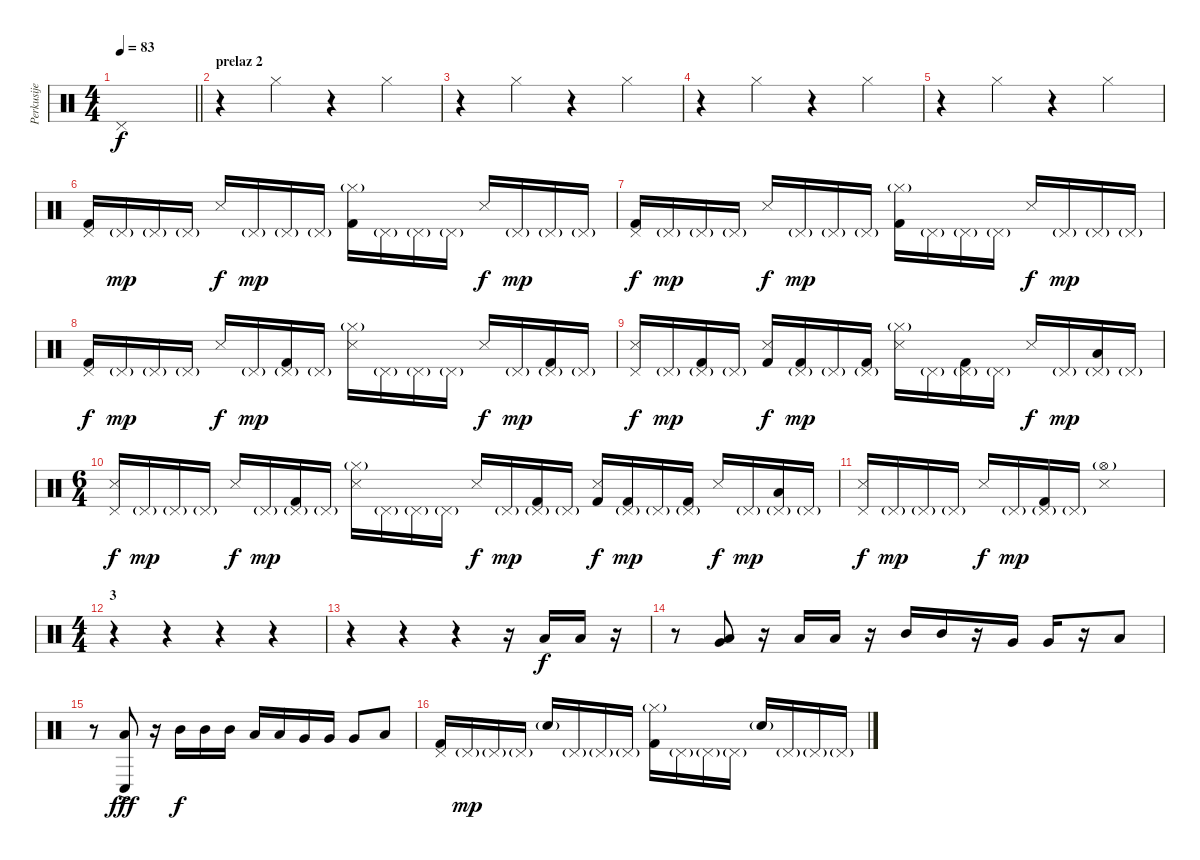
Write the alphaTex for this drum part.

\track ("Perkusije" "Perkusije") {instrument percussion}
\staff {score}
\articulation defaults
\ts (4 4)
\tempo 83
\clef neutral
\barLineRight lightlight
\ks c "Pedal Hi-Hat (hit)".1{dy f}
|
\section ("" "prelaz 2")
r.4 "Hi-Hat (closed)".4 r.4 "Hi-Hat (closed)".4 |
r.4 "Hi-Hat (closed)".4 r.4 "Hi-Hat (closed)".4 |
r.4 "Hi-Hat (closed)".4 r.4 "Hi-Hat (closed)".4 |
r.4 "Hi-Hat (closed)".4 r.4 "Hi-Hat (closed)".4 |
("Pedal Hi-Hat (hit)" "Kick (hit) 2").16 "Pedal Hi-Hat (hit)"{g}.16{dy mp} "Pedal Hi-Hat (hit)"{g}.16 "Pedal Hi-Hat (hit)"{g}.16 "Snare (side stick) 3".16{dy f} "Pedal Hi-Hat (hit)"{g}.16{dy mp} "Pedal Hi-Hat (hit)"{g}.16 "Pedal Hi-Hat (hit)"{g}.16 ("Hi-Hat (closed)"{g} "Kick (hit) 2").16 "Pedal Hi-Hat (hit)"{g}.16 "Pedal Hi-Hat (hit)"{g}.16 "Pedal Hi-Hat (hit)"{g}.16 "Snare (side stick) 3".16{dy f} "Pedal Hi-Hat (hit)"{g}.16{dy mp} "Pedal Hi-Hat (hit)"{g}.16 "Pedal Hi-Hat (hit)"{g}.16 |
("Pedal Hi-Hat (hit)" "Kick (hit) 2").16{dy f} "Pedal Hi-Hat (hit)"{g}.16{dy mp} "Pedal Hi-Hat (hit)"{g}.16 "Pedal Hi-Hat (hit)"{g}.16 "Snare (side stick) 3".16{dy f} "Pedal Hi-Hat (hit)"{g}.16{dy mp} "Pedal Hi-Hat (hit)"{g}.16 "Pedal Hi-Hat (hit)"{g}.16 ("Hi-Hat (closed)"{g} "Kick (hit) 2").16 "Pedal Hi-Hat (hit)"{g}.16 "Pedal Hi-Hat (hit)"{g}.16 "Pedal Hi-Hat (hit)"{g}.16 "Snare (side stick) 3".16{dy f} "Pedal Hi-Hat (hit)"{g}.16{dy mp} "Pedal Hi-Hat (hit)"{g}.16 "Pedal Hi-Hat (hit)"{g}.16 |
("Pedal Hi-Hat (hit)" "Kick (hit) 2").16{dy f} "Pedal Hi-Hat (hit)"{g}.16{dy mp} "Pedal Hi-Hat (hit)"{g}.16 "Pedal Hi-Hat (hit)"{g}.16 "Snare (side stick) 3".16{dy f} "Pedal Hi-Hat (hit)"{g}.16{dy mp} ("Pedal Hi-Hat (hit)"{g} "Kick (hit) 2").16 "Pedal Hi-Hat (hit)"{g}.16 ("Hi-Hat (closed)"{g} "Snare (side stick) 3").16 "Pedal Hi-Hat (hit)"{g}.16 "Pedal Hi-Hat (hit)"{g}.16 "Pedal Hi-Hat (hit)"{g}.16 "Snare (side stick) 3".16{dy f} "Pedal Hi-Hat (hit)"{g}.16{dy mp} ("Pedal Hi-Hat (hit)"{g} "Kick (hit) 2").16 "Pedal Hi-Hat (hit)"{g}.16 |
("Pedal Hi-Hat (hit)" "Snare (side stick) 3").16{dy f} "Pedal Hi-Hat (hit)"{g}.16{dy mp} ("Pedal Hi-Hat (hit)"{g} "Kick (hit) 2").16 "Pedal Hi-Hat (hit)"{g}.16 ("Snare (side stick) 3" "Kick (hit) 2").16{dy f} ("Pedal Hi-Hat (hit)"{g} "Kick (hit) 2").16{dy mp} "Pedal Hi-Hat (hit)"{g}.16 ("Pedal Hi-Hat (hit)"{g} "Kick (hit) 2").16 ("Hi-Hat (closed)"{g} "Snare (side stick) 3").16 "Pedal Hi-Hat (hit)"{g}.16 ("Pedal Hi-Hat (hit)"{g} "Kick (hit) 2").16 "Pedal Hi-Hat (hit)"{g}.16 "Snare (side stick) 3".16{dy f} "Pedal Hi-Hat (hit)"{g}.16{dy mp} ("Pedal Hi-Hat (hit)"{g} "Low Floor Tom (hit)").16 "Pedal Hi-Hat (hit)"{g}.16 |
\ts (6 4)
("Pedal Hi-Hat (hit)" "Snare (side stick) 3").16{dy f} "Pedal Hi-Hat (hit)"{g}.16{dy mp} "Pedal Hi-Hat (hit)"{g}.16 "Pedal Hi-Hat (hit)"{g}.16 "Snare (side stick) 3".16{dy f} "Pedal Hi-Hat (hit)"{g}.16{dy mp} ("Pedal Hi-Hat (hit)"{g} "Kick (hit) 2").16 "Pedal Hi-Hat (hit)"{g}.16 ("Hi-Hat (closed)"{g} "Snare (side stick) 3").16 "Pedal Hi-Hat (hit)"{g}.16 "Pedal Hi-Hat (hit)"{g}.16 "Pedal Hi-Hat (hit)"{g}.16 "Snare (side stick) 3".16{dy f} "Pedal Hi-Hat (hit)"{g}.16{dy mp} ("Pedal Hi-Hat (hit)"{g} "Kick (hit) 2").16 "Pedal Hi-Hat (hit)"{g}.16 ("Snare (side stick) 3" "Kick (hit) 2").16{dy f} ("Pedal Hi-Hat (hit)"{g} "Kick (hit) 2").16{dy mp} "Pedal Hi-Hat (hit)"{g}.16 ("Pedal Hi-Hat (hit)"{g} "Kick (hit) 2").16 "Snare (side stick) 3".16{dy f} "Pedal Hi-Hat (hit)"{g}.16{dy mp} ("Pedal Hi-Hat (hit)"{g} "Low Floor Tom (hit)").16 "Pedal Hi-Hat (hit)"{g}.16 |
("Pedal Hi-Hat (hit)" "Snare (side stick) 3").16{dy f} "Pedal Hi-Hat (hit)"{g}.16{dy mp} "Pedal Hi-Hat (hit)"{g}.16 "Pedal Hi-Hat (hit)"{g}.16 "Snare (side stick) 3".16{dy f} "Pedal Hi-Hat (hit)"{g}.16{dy mp} ("Pedal Hi-Hat (hit)"{g} "Kick (hit) 2").16 "Pedal Hi-Hat (hit)"{g}.16 ("Hi-Hat (open)"{g} "Snare (side stick) 3").1 |
\ts (4 4)
\section ("" "3")
r.4 r.4 r.4 r.4 |
r.4 r.4 r.4 r.16 "Low Tom (hit)".16{dy f} "Low Tom (hit)".16 r.16 |
r.8 ("Very Low Tom (hit)" "Low Tom (hit)").8{bd 240} r.16 "Low Tom (hit)".16 "Low Tom (hit)".16 r.16 "Mid Tom (hit)".16 "Mid Tom (hit)".16 r.16 "Very Low Tom (hit)".16 "Very Low Tom (hit)".16 r.16 "Low Floor Tom (hit)".8 |
r.8 ("Conga low (hit)"{ac} "Low Tom (hit)"{ac}).8{bd 240 dy fff} r.16 "Mid Tom (hit)".16{dy f} "Mid Tom (hit)".16 "Mid Tom (hit)".16 "Low Tom (hit)".16 "Low Tom (hit)".16 "Very Low Tom (hit)".16 "Very Low Tom (hit)".16 "Very Low Tom (hit)".8 "Low Floor Tom (hit)".8 |
("Pedal Hi-Hat (hit)" "Kick (hit) 2").16 "Pedal Hi-Hat (hit)"{g}.16{dy mp} "Pedal Hi-Hat (hit)"{g}.16 "Pedal Hi-Hat (hit)"{g}.16 "Snare (hit) 2"{g}.16 "Pedal Hi-Hat (hit)"{g}.16 "Pedal Hi-Hat (hit)"{g}.16 "Pedal Hi-Hat (hit)"{g}.16 ("Hi-Hat (closed)"{g} "Kick (hit) 2").16 "Pedal Hi-Hat (hit)"{g}.16 "Pedal Hi-Hat (hit)"{g}.16 "Pedal Hi-Hat (hit)"{g}.16 "Snare (hit) 2"{g}.16 "Pedal Hi-Hat (hit)"{g}.16 "Pedal Hi-Hat (hit)"{g}.16 "Pedal Hi-Hat (hit)"{g}.16
